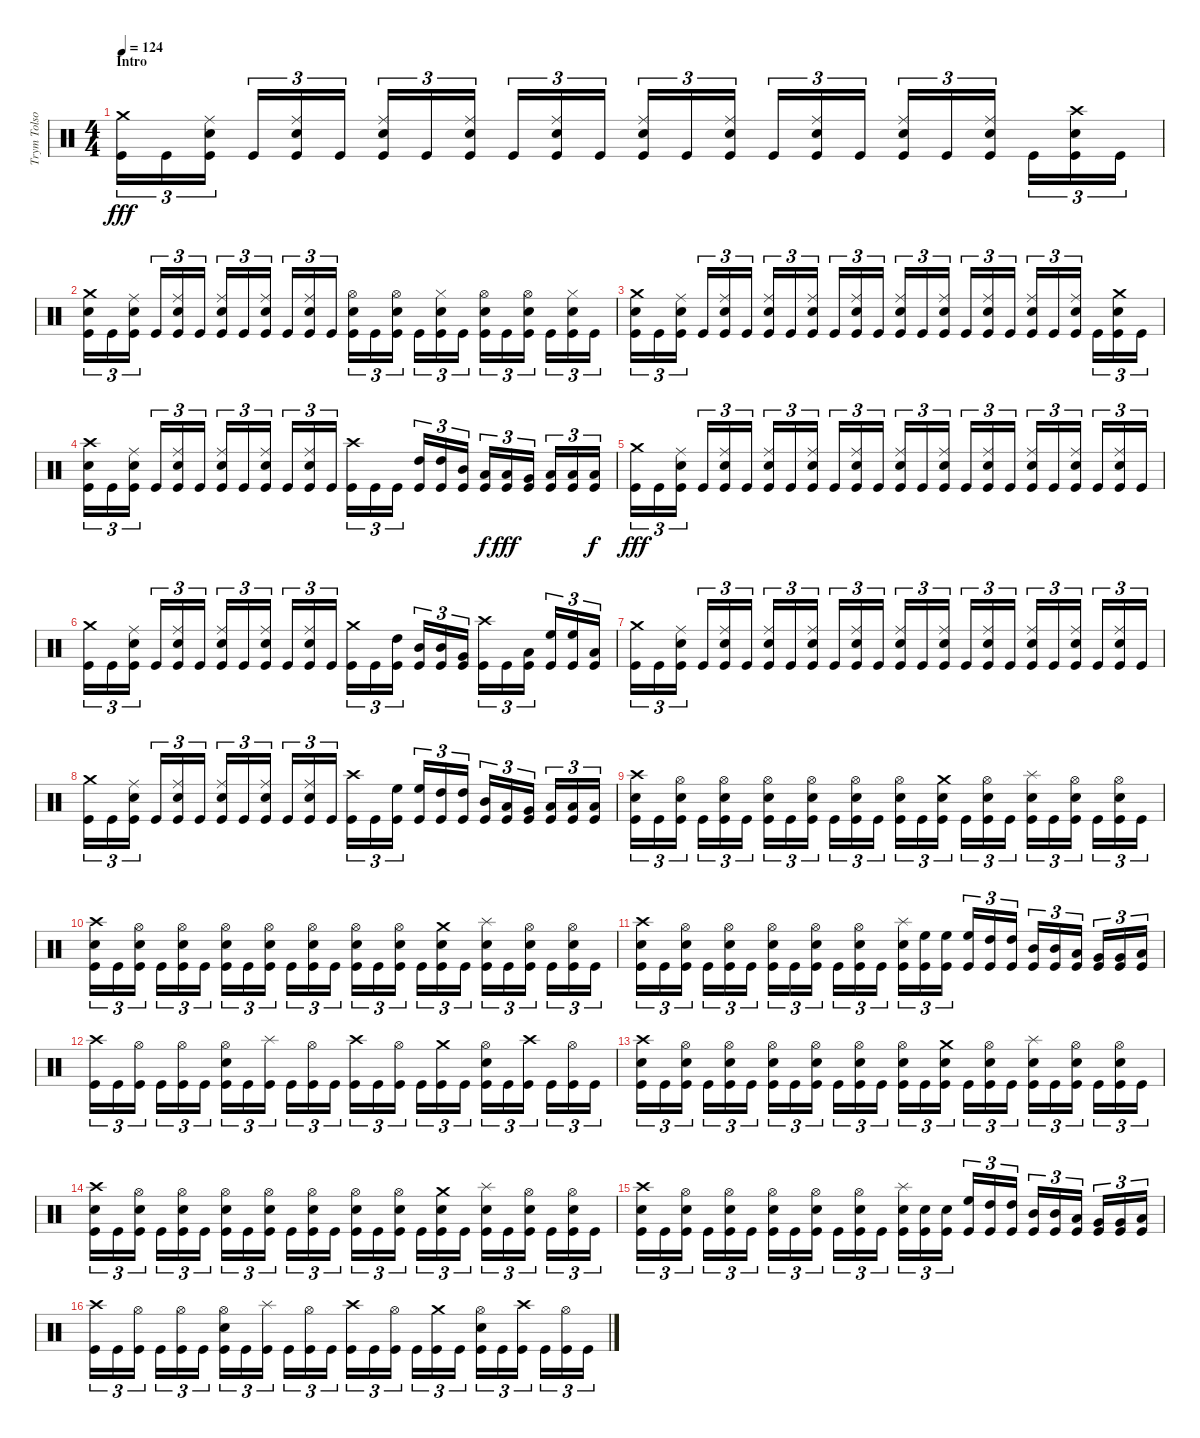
\track ("Trym Tolson" "Trym Tolso") {instrument percussion}
\staff {score}
\articulation defaults
\ts (4 4)
\section ("" "Intro")
\tempo 124
\clef neutral
\ks c
("Crash medium (hit)" "Kick (hit)").16{tu (3 2) dy fff} "Kick (hit)".16{tu (3 2)} ("Ride (middle)" "Electric Snare (hit)" "Kick (hit)").16{tu (3 2)} "Kick (hit)".16{tu (3 2)} ("Ride (middle)" "Electric Snare (hit)" "Kick (hit)").16{tu (3 2)} "Kick (hit)".16{tu (3 2)} ("Ride (middle)" "Electric Snare (hit)" "Kick (hit)").16{tu (3 2)} "Kick (hit)".16{tu (3 2)} ("Ride (middle)" "Electric Snare (hit)" "Kick (hit)").16{tu (3 2)} "Kick (hit)".16{tu (3 2)} ("Ride (middle)" "Electric Snare (hit)" "Kick (hit)").16{tu (3 2)} "Kick (hit)".16{tu (3 2)} ("Ride (middle)" "Electric Snare (hit)" "Kick (hit)").16{tu (3 2)} "Kick (hit)".16{tu (3 2)} ("Ride (middle)" "Electric Snare (hit)" "Kick (hit)").16{tu (3 2)} "Kick (hit)".16{tu (3 2)} ("Ride (middle)" "Electric Snare (hit)" "Kick (hit)").16{tu (3 2)} "Kick (hit)".16{tu (3 2)} ("Ride (middle)" "Electric Snare (hit)" "Kick (hit)").16{tu (3 2)} "Kick (hit)".16{tu (3 2)} ("Ride (middle)" "Electric Snare (hit)" "Kick (hit)").16{tu (3 2)} "Kick (hit)".16{tu (3 2)} ("Crash high (hit)" "Electric Snare (hit)" "Kick (hit)").16{tu (3 2)} "Kick (hit)".16{tu (3 2)} |
("Crash medium (hit)" "Electric Snare (hit)" "Kick (hit)").16{tu (3 2)} "Kick (hit)".16{tu (3 2)} ("Ride (middle)" "Electric Snare (hit)" "Kick (hit)").16{tu (3 2)} "Kick (hit)".16{tu (3 2)} ("Ride (middle)" "Electric Snare (hit)" "Kick (hit)").16{tu (3 2)} "Kick (hit)".16{tu (3 2)} ("Ride (middle)" "Electric Snare (hit)" "Kick (hit)").16{tu (3 2)} "Kick (hit)".16{tu (3 2)} ("Ride (middle)" "Electric Snare (hit)" "Kick (hit)").16{tu (3 2)} "Kick (hit)".16{tu (3 2)} ("Ride (middle)" "Electric Snare (hit)" "Kick (hit)").16{tu (3 2)} "Kick (hit)".16{tu (3 2)} ("Hi-Hat (open)" "Electric Snare (hit)" "Kick (hit)").16{tu (3 2)} "Kick (hit)".16{tu (3 2)} ("Hi-Hat (open)" "Electric Snare (hit)" "Kick (hit)").16{tu (3 2)} "Kick (hit)".16{tu (3 2)} ("Hi-Hat (closed)" "Electric Snare (hit)" "Kick (hit)").16{tu (3 2)} "Kick (hit)".16{tu (3 2)} ("Hi-Hat (open)" "Electric Snare (hit)" "Kick (hit)").16{tu (3 2)} "Kick (hit)".16{tu (3 2)} ("Hi-Hat (open)" "Electric Snare (hit)" "Kick (hit)").16{tu (3 2)} "Kick (hit)".16{tu (3 2)} ("Hi-Hat (closed)" "Electric Snare (hit)" "Kick (hit)").16{tu (3 2)} "Kick (hit)".16{tu (3 2)} |
("Crash medium (hit)" "Electric Snare (hit)" "Kick (hit)").16{tu (3 2)} "Kick (hit)".16{tu (3 2)} ("Ride (middle)" "Electric Snare (hit)" "Kick (hit)").16{tu (3 2)} "Kick (hit)".16{tu (3 2)} ("Ride (middle)" "Electric Snare (hit)" "Kick (hit)").16{tu (3 2)} "Kick (hit)".16{tu (3 2)} ("Ride (middle)" "Electric Snare (hit)" "Kick (hit)").16{tu (3 2)} "Kick (hit)".16{tu (3 2)} ("Ride (middle)" "Electric Snare (hit)" "Kick (hit)").16{tu (3 2)} "Kick (hit)".16{tu (3 2)} ("Ride (middle)" "Electric Snare (hit)" "Kick (hit)").16{tu (3 2)} "Kick (hit)".16{tu (3 2)} ("Ride (middle)" "Electric Snare (hit)" "Kick (hit)").16{tu (3 2)} "Kick (hit)".16{tu (3 2)} ("Ride (middle)" "Electric Snare (hit)" "Kick (hit)").16{tu (3 2)} "Kick (hit)".16{tu (3 2)} ("Ride (middle)" "Electric Snare (hit)" "Kick (hit)").16{tu (3 2)} "Kick (hit)".16{tu (3 2)} ("Ride (middle)" "Electric Snare (hit)" "Kick (hit)").16{tu (3 2)} "Kick (hit)".16{tu (3 2)} ("Ride (middle)" "Electric Snare (hit)" "Kick (hit)").16{tu (3 2)} "Kick (hit)".16{tu (3 2)} ("Crash medium (hit)" "Electric Snare (hit)" "Kick (hit)").16{tu (3 2)} "Kick (hit)".16{tu (3 2)} |
("Crash high (hit)" "Electric Snare (hit)" "Kick (hit)").16{tu (3 2)} "Kick (hit)".16{tu (3 2)} ("Ride (middle)" "Electric Snare (hit)" "Kick (hit)").16{tu (3 2)} "Kick (hit)".16{tu (3 2)} ("Ride (middle)" "Electric Snare (hit)" "Kick (hit)").16{tu (3 2)} "Kick (hit)".16{tu (3 2)} ("Ride (middle)" "Electric Snare (hit)" "Kick (hit)").16{tu (3 2)} "Kick (hit)".16{tu (3 2)} ("Ride (middle)" "Electric Snare (hit)" "Kick (hit)").16{tu (3 2)} "Kick (hit)".16{tu (3 2)} ("Ride (middle)" "Electric Snare (hit)" "Kick (hit)").16{tu (3 2)} "Kick (hit)".16{tu (3 2)} ("Crash high (hit)" "Kick (hit)").16{tu (3 2)} "Kick (hit)".16{tu (3 2)} "Kick (hit)".16{tu (3 2)} ("High Tom (hit)" "Kick (hit)").16{tu (3 2)} ("High Tom (hit)" "Kick (hit)").16{tu (3 2)} ("Mid Tom (hit)" "Kick (hit)").16{tu (3 2)} ("Low Tom (hit)" "Kick (hit)").16{tu (3 2) dy f} ("Low Tom (hit)" "Kick (hit)").16{tu (3 2) dy fff} ("Very Low Tom (hit)" "Kick (hit)").16{tu (3 2)} ("Low Floor Tom (hit)" "Kick (hit)").16{tu (3 2)} ("Low Floor Tom (hit)" "Kick (hit)").16{tu (3 2)} ("Low Floor Tom (hit)" "Kick (hit)").16{tu (3 2) dy f} |
("Crash medium (hit)" "Kick (hit)").16{tu (3 2) dy fff} "Kick (hit)".16{tu (3 2)} ("Ride (middle)" "Electric Snare (hit)" "Kick (hit)").16{tu (3 2)} "Kick (hit)".16{tu (3 2)} ("Ride (middle)" "Electric Snare (hit)" "Kick (hit)").16{tu (3 2)} "Kick (hit)".16{tu (3 2)} ("Ride (middle)" "Electric Snare (hit)" "Kick (hit)").16{tu (3 2)} "Kick (hit)".16{tu (3 2)} ("Ride (middle)" "Electric Snare (hit)" "Kick (hit)").16{tu (3 2)} "Kick (hit)".16{tu (3 2)} ("Ride (middle)" "Electric Snare (hit)" "Kick (hit)").16{tu (3 2)} "Kick (hit)".16{tu (3 2)} ("Ride (middle)" "Electric Snare (hit)" "Kick (hit)").16{tu (3 2)} "Kick (hit)".16{tu (3 2)} ("Ride (middle)" "Electric Snare (hit)" "Kick (hit)").16{tu (3 2)} "Kick (hit)".16{tu (3 2)} ("Ride (middle)" "Electric Snare (hit)" "Kick (hit)").16{tu (3 2)} "Kick (hit)".16{tu (3 2)} ("Ride (middle)" "Electric Snare (hit)" "Kick (hit)").16{tu (3 2)} "Kick (hit)".16{tu (3 2)} ("Ride (middle)" "Electric Snare (hit)" "Kick (hit)").16{tu (3 2)} "Kick (hit)".16{tu (3 2)} ("Ride (middle)" "Electric Snare (hit)" "Kick (hit)").16{tu (3 2)} "Kick (hit)".16{tu (3 2)} |
("Crash medium (hit)" "Kick (hit)").16{tu (3 2)} "Kick (hit)".16{tu (3 2)} ("Ride (middle)" "Electric Snare (hit)" "Kick (hit)").16{tu (3 2)} "Kick (hit)".16{tu (3 2)} ("Ride (middle)" "Electric Snare (hit)" "Kick (hit)").16{tu (3 2)} "Kick (hit)".16{tu (3 2)} ("Ride (middle)" "Electric Snare (hit)" "Kick (hit)").16{tu (3 2)} "Kick (hit)".16{tu (3 2)} ("Ride (middle)" "Electric Snare (hit)" "Kick (hit)").16{tu (3 2)} "Kick (hit)".16{tu (3 2)} ("Ride (middle)" "Electric Snare (hit)" "Kick (hit)").16{tu (3 2)} "Kick (hit)".16{tu (3 2)} ("Crash medium (hit)" "Kick (hit)").16{tu (3 2)} "Kick (hit)".16{tu (3 2)} ("High Tom (hit)" "Kick (hit)").16{tu (3 2)} ("Mid Tom (hit)" "Kick (hit)").16{tu (3 2)} ("Mid Tom (hit)" "Kick (hit)").16{tu (3 2)} ("Very Low Tom (hit)" "Kick (hit)").16{tu (3 2)} ("Crash high (hit)" "Kick (hit)").16{tu (3 2)} "Kick (hit)".16{tu (3 2)} ("Low Tom (hit)" "Kick (hit)").16{tu (3 2)} ("High Floor Tom (hit)" "Kick (hit)").16{tu (3 2)} ("High Floor Tom (hit)" "Kick (hit)").16{tu (3 2)} ("Low Floor Tom (hit)" "Kick (hit)").16{tu (3 2)} |
("Crash medium (hit)" "Kick (hit)").16{tu (3 2)} "Kick (hit)".16{tu (3 2)} ("Ride (middle)" "Electric Snare (hit)" "Kick (hit)").16{tu (3 2)} "Kick (hit)".16{tu (3 2)} ("Ride (middle)" "Electric Snare (hit)" "Kick (hit)").16{tu (3 2)} "Kick (hit)".16{tu (3 2)} ("Ride (middle)" "Electric Snare (hit)" "Kick (hit)").16{tu (3 2)} "Kick (hit)".16{tu (3 2)} ("Ride (middle)" "Electric Snare (hit)" "Kick (hit)").16{tu (3 2)} "Kick (hit)".16{tu (3 2)} ("Ride (middle)" "Electric Snare (hit)" "Kick (hit)").16{tu (3 2)} "Kick (hit)".16{tu (3 2)} ("Ride (middle)" "Electric Snare (hit)" "Kick (hit)").16{tu (3 2)} "Kick (hit)".16{tu (3 2)} ("Ride (middle)" "Electric Snare (hit)" "Kick (hit)").16{tu (3 2)} "Kick (hit)".16{tu (3 2)} ("Ride (middle)" "Electric Snare (hit)" "Kick (hit)").16{tu (3 2)} "Kick (hit)".16{tu (3 2)} ("Ride (middle)" "Electric Snare (hit)" "Kick (hit)").16{tu (3 2)} "Kick (hit)".16{tu (3 2)} ("Ride (middle)" "Electric Snare (hit)" "Kick (hit)").16{tu (3 2)} "Kick (hit)".16{tu (3 2)} ("Ride (middle)" "Electric Snare (hit)" "Kick (hit)").16{tu (3 2)} "Kick (hit)".16{tu (3 2)} |
("Crash medium (hit)" "Kick (hit)").16{tu (3 2)} "Kick (hit)".16{tu (3 2)} ("Ride (middle)" "Electric Snare (hit)" "Kick (hit)").16{tu (3 2)} "Kick (hit)".16{tu (3 2)} ("Ride (middle)" "Electric Snare (hit)" "Kick (hit)").16{tu (3 2)} "Kick (hit)".16{tu (3 2)} ("Ride (middle)" "Electric Snare (hit)" "Kick (hit)").16{tu (3 2)} "Kick (hit)".16{tu (3 2)} ("Ride (middle)" "Electric Snare (hit)" "Kick (hit)").16{tu (3 2)} "Kick (hit)".16{tu (3 2)} ("Ride (middle)" "Electric Snare (hit)" "Kick (hit)").16{tu (3 2)} "Kick (hit)".16{tu (3 2)} ("Crash high (hit)" "Kick (hit)").16{tu (3 2)} "Kick (hit)".16{tu (3 2)} ("High Floor Tom (hit)" "Kick (hit)").16{tu (3 2)} ("High Floor Tom (hit)" "Kick (hit)").16{tu (3 2)} ("High Tom (hit)" "Kick (hit)").16{tu (3 2)} ("High Tom (hit)" "Kick (hit)").16{tu (3 2)} ("Mid Tom (hit)" "Kick (hit)").16{tu (3 2)} ("Low Tom (hit)" "Kick (hit)").16{tu (3 2)} ("Very Low Tom (hit)" "Kick (hit)").16{tu (3 2)} ("Low Floor Tom (hit)" "Kick (hit)").16{tu (3 2)} ("Low Floor Tom (hit)" "Kick (hit)").16{tu (3 2)} ("Low Floor Tom (hit)" "Kick (hit)").16{tu (3 2)} |
("Crash high (hit)" "Electric Snare (hit)" "Kick (hit)").16{tu (3 2)} "Kick (hit)".16{tu (3 2)} ("Hi-Hat (open)" "Electric Snare (hit)" "Kick (hit)").16{tu (3 2)} "Kick (hit)".16{tu (3 2)} ("Hi-Hat (open)" "Electric Snare (hit)" "Kick (hit)").16{tu (3 2)} "Kick (hit)".16{tu (3 2)} ("Hi-Hat (open)" "Electric Snare (hit)" "Kick (hit)").16{tu (3 2)} "Kick (hit)".16{tu (3 2)} ("Hi-Hat (open)" "Electric Snare (hit)" "Kick (hit)").16{tu (3 2)} "Kick (hit)".16{tu (3 2)} ("Hi-Hat (open)" "Electric Snare (hit)" "Kick (hit)").16{tu (3 2)} "Kick (hit)".16{tu (3 2)} ("Hi-Hat (open)" "Electric Snare (hit)" "Kick (hit)").16{tu (3 2)} "Kick (hit)".16{tu (3 2)} ("Crash medium (hit)" "Electric Snare (hit)" "Kick (hit)").16{tu (3 2)} "Kick (hit)".16{tu (3 2)} ("Hi-Hat (open)" "Electric Snare (hit)" "Kick (hit)").16{tu (3 2)} "Kick (hit)".16{tu (3 2)} ("Splash (hit)" "Electric Snare (hit)" "Kick (hit)").16{tu (3 2)} "Kick (hit)".16{tu (3 2)} ("Hi-Hat (open)" "Electric Snare (hit)" "Kick (hit)").16{tu (3 2)} "Kick (hit)".16{tu (3 2)} ("Hi-Hat (open)" "Electric Snare (hit)" "Kick (hit)").16{tu (3 2)} "Kick (hit)".16{tu (3 2)} |
("Crash high (hit)" "Electric Snare (hit)" "Kick (hit)").16{tu (3 2)} "Kick (hit)".16{tu (3 2)} ("Hi-Hat (open)" "Electric Snare (hit)" "Kick (hit)").16{tu (3 2)} "Kick (hit)".16{tu (3 2)} ("Hi-Hat (open)" "Electric Snare (hit)" "Kick (hit)").16{tu (3 2)} "Kick (hit)".16{tu (3 2)} ("Hi-Hat (open)" "Electric Snare (hit)" "Kick (hit)").16{tu (3 2)} "Kick (hit)".16{tu (3 2)} ("Hi-Hat (open)" "Electric Snare (hit)" "Kick (hit)").16{tu (3 2)} "Kick (hit)".16{tu (3 2)} ("Hi-Hat (open)" "Electric Snare (hit)" "Kick (hit)").16{tu (3 2)} "Kick (hit)".16{tu (3 2)} ("Hi-Hat (open)" "Electric Snare (hit)" "Kick (hit)").16{tu (3 2)} "Kick (hit)".16{tu (3 2)} ("Hi-Hat (open)" "Electric Snare (hit)" "Kick (hit)").16{tu (3 2)} "Kick (hit)".16{tu (3 2)} ("Crash medium (hit)" "Electric Snare (hit)" "Kick (hit)").16{tu (3 2)} "Kick (hit)".16{tu (3 2)} ("Splash (hit)" "Electric Snare (hit)" "Kick (hit)").16{tu (3 2)} "Kick (hit)".16{tu (3 2)} ("Hi-Hat (open)" "Electric Snare (hit)" "Kick (hit)").16{tu (3 2)} "Kick (hit)".16{tu (3 2)} ("Hi-Hat (open)" "Electric Snare (hit)" "Kick (hit)").16{tu (3 2)} "Kick (hit)".16{tu (3 2)} |
("Crash high (hit)" "Electric Snare (hit)" "Kick (hit)").16{tu (3 2)} "Kick (hit)".16{tu (3 2)} ("Hi-Hat (open)" "Electric Snare (hit)" "Kick (hit)").16{tu (3 2)} "Kick (hit)".16{tu (3 2)} ("Hi-Hat (open)" "Electric Snare (hit)" "Kick (hit)").16{tu (3 2)} "Kick (hit)".16{tu (3 2)} ("Hi-Hat (open)" "Electric Snare (hit)" "Kick (hit)").16{tu (3 2)} "Kick (hit)".16{tu (3 2)} ("Hi-Hat (open)" "Electric Snare (hit)" "Kick (hit)").16{tu (3 2)} "Kick (hit)".16{tu (3 2)} ("Hi-Hat (open)" "Electric Snare (hit)" "Kick (hit)").16{tu (3 2)} "Kick (hit)".16{tu (3 2)} ("Splash (hit)" "Electric Snare (hit)" "Kick (hit)").16{tu (3 2)} ("High Floor Tom (hit)" "Kick (hit)").16{tu (3 2)} ("High Floor Tom (hit)" "Kick (hit)").16{tu (3 2)} ("High Floor Tom (hit)" "Kick (hit)").16{tu (3 2)} ("High Tom (hit)" "Kick (hit)").16{tu (3 2)} ("High Tom (hit)" "Kick (hit)").16{tu (3 2)} ("Mid Tom (hit)" "Kick (hit)").16{tu (3 2)} ("Mid Tom (hit)" "Kick (hit)").16{tu (3 2)} ("Low Tom (hit)" "Kick (hit)").16{tu (3 2)} ("Very Low Tom (hit)" "Kick (hit)").16{tu (3 2)} ("Very Low Tom (hit)" "Kick (hit)").16{tu (3 2)} ("Low Floor Tom (hit)" "Kick (hit)").16{tu (3 2)} |
("Crash high (hit)" "Kick (hit)").16{tu (3 2)} "Kick (hit)".16{tu (3 2)} ("Hi-Hat (open)" "Kick (hit)").16{tu (3 2)} "Kick (hit)".16{tu (3 2)} ("Hi-Hat (open)" "Kick (hit)").16{tu (3 2)} "Kick (hit)".16{tu (3 2)} ("Hi-Hat (open)" "Electric Snare (hit)" "Kick (hit)").16{tu (3 2)} "Kick (hit)".16{tu (3 2)} ("Splash (hit)" "Kick (hit)").16{tu (3 2)} "Kick (hit)".16{tu (3 2)} ("Hi-Hat (open)" "Kick (hit)").16{tu (3 2)} "Kick (hit)".16{tu (3 2)} ("Crash high (hit)" "Kick (hit)").16{tu (3 2)} "Kick (hit)".16{tu (3 2)} ("Hi-Hat (open)" "Kick (hit)").16{tu (3 2)} "Kick (hit)".16{tu (3 2)} ("Crash medium (hit)" "Kick (hit)").16{tu (3 2)} "Kick (hit)".16{tu (3 2)} ("Hi-Hat (open)" "Electric Snare (hit)" "Kick (hit)").16{tu (3 2)} "Kick (hit)".16{tu (3 2)} ("Crash high (hit)" "Kick (hit)").16{tu (3 2)} "Kick (hit)".16{tu (3 2)} ("Hi-Hat (open)" "Kick (hit)").16{tu (3 2)} "Kick (hit)".16{tu (3 2)} |
("Crash high (hit)" "Electric Snare (hit)" "Kick (hit)").16{tu (3 2)} "Kick (hit)".16{tu (3 2)} ("Hi-Hat (open)" "Electric Snare (hit)" "Kick (hit)").16{tu (3 2)} "Kick (hit)".16{tu (3 2)} ("Hi-Hat (open)" "Electric Snare (hit)" "Kick (hit)").16{tu (3 2)} "Kick (hit)".16{tu (3 2)} ("Hi-Hat (open)" "Electric Snare (hit)" "Kick (hit)").16{tu (3 2)} "Kick (hit)".16{tu (3 2)} ("Hi-Hat (open)" "Electric Snare (hit)" "Kick (hit)").16{tu (3 2)} "Kick (hit)".16{tu (3 2)} ("Hi-Hat (open)" "Electric Snare (hit)" "Kick (hit)").16{tu (3 2)} "Kick (hit)".16{tu (3 2)} ("Hi-Hat (open)" "Electric Snare (hit)" "Kick (hit)").16{tu (3 2)} "Kick (hit)".16{tu (3 2)} ("Crash medium (hit)" "Electric Snare (hit)" "Kick (hit)").16{tu (3 2)} "Kick (hit)".16{tu (3 2)} ("Hi-Hat (open)" "Electric Snare (hit)" "Kick (hit)").16{tu (3 2)} "Kick (hit)".16{tu (3 2)} ("Splash (hit)" "Electric Snare (hit)" "Kick (hit)").16{tu (3 2)} "Kick (hit)".16{tu (3 2)} ("Hi-Hat (open)" "Electric Snare (hit)" "Kick (hit)").16{tu (3 2)} "Kick (hit)".16{tu (3 2)} ("Hi-Hat (open)" "Electric Snare (hit)" "Kick (hit)").16{tu (3 2)} "Kick (hit)".16{tu (3 2)} |
("Crash high (hit)" "Electric Snare (hit)" "Kick (hit)").16{tu (3 2)} "Kick (hit)".16{tu (3 2)} ("Hi-Hat (open)" "Electric Snare (hit)" "Kick (hit)").16{tu (3 2)} "Kick (hit)".16{tu (3 2)} ("Hi-Hat (open)" "Electric Snare (hit)" "Kick (hit)").16{tu (3 2)} "Kick (hit)".16{tu (3 2)} ("Hi-Hat (open)" "Electric Snare (hit)" "Kick (hit)").16{tu (3 2)} "Kick (hit)".16{tu (3 2)} ("Hi-Hat (open)" "Electric Snare (hit)" "Kick (hit)").16{tu (3 2)} "Kick (hit)".16{tu (3 2)} ("Hi-Hat (open)" "Electric Snare (hit)" "Kick (hit)").16{tu (3 2)} "Kick (hit)".16{tu (3 2)} ("Hi-Hat (open)" "Electric Snare (hit)" "Kick (hit)").16{tu (3 2)} "Kick (hit)".16{tu (3 2)} ("Hi-Hat (open)" "Electric Snare (hit)" "Kick (hit)").16{tu (3 2)} "Kick (hit)".16{tu (3 2)} ("Crash medium (hit)" "Electric Snare (hit)" "Kick (hit)").16{tu (3 2)} "Kick (hit)".16{tu (3 2)} ("Splash (hit)" "Electric Snare (hit)" "Kick (hit)").16{tu (3 2)} "Kick (hit)".16{tu (3 2)} ("Hi-Hat (open)" "Electric Snare (hit)" "Kick (hit)").16{tu (3 2)} "Kick (hit)".16{tu (3 2)} ("Hi-Hat (open)" "Electric Snare (hit)" "Kick (hit)").16{tu (3 2)} "Kick (hit)".16{tu (3 2)} |
("Crash high (hit)" "Electric Snare (hit)" "Kick (hit)").16{tu (3 2)} "Kick (hit)".16{tu (3 2)} ("Hi-Hat (open)" "Electric Snare (hit)" "Kick (hit)").16{tu (3 2)} "Kick (hit)".16{tu (3 2)} ("Hi-Hat (open)" "Electric Snare (hit)" "Kick (hit)").16{tu (3 2)} "Kick (hit)".16{tu (3 2)} ("Hi-Hat (open)" "Electric Snare (hit)" "Kick (hit)").16{tu (3 2)} "Kick (hit)".16{tu (3 2)} ("Hi-Hat (open)" "Electric Snare (hit)" "Kick (hit)").16{tu (3 2)} "Kick (hit)".16{tu (3 2)} ("Hi-Hat (open)" "Electric Snare (hit)" "Kick (hit)").16{tu (3 2)} "Kick (hit)".16{tu (3 2)} ("Splash (hit)" "Electric Snare (hit)" "Kick (hit)").16{tu (3 2)} ("Electric Snare (hit)" "Kick (hit)").16{tu (3 2)} ("Electric Snare (hit)" "Kick (hit)").16{tu (3 2)} ("High Floor Tom (hit)" "Kick (hit)").16{tu (3 2)} ("High Tom (hit)" "Kick (hit)").16{tu (3 2)} ("High Tom (hit)" "Kick (hit)").16{tu (3 2)} ("Mid Tom (hit)" "Kick (hit)").16{tu (3 2)} ("Mid Tom (hit)" "Kick (hit)").16{tu (3 2)} ("Low Tom (hit)" "Kick (hit)").16{tu (3 2)} ("Very Low Tom (hit)" "Kick (hit)").16{tu (3 2)} ("Very Low Tom (hit)" "Kick (hit)").16{tu (3 2)} ("Low Floor Tom (hit)" "Kick (hit)").16{tu (3 2)} |
("Crash high (hit)" "Kick (hit)").16{tu (3 2)} "Kick (hit)".16{tu (3 2)} ("Hi-Hat (open)" "Kick (hit)").16{tu (3 2)} "Kick (hit)".16{tu (3 2)} ("Hi-Hat (open)" "Kick (hit)").16{tu (3 2)} "Kick (hit)".16{tu (3 2)} ("Hi-Hat (open)" "Electric Snare (hit)" "Kick (hit)").16{tu (3 2)} "Kick (hit)".16{tu (3 2)} ("Splash (hit)" "Kick (hit)").16{tu (3 2)} "Kick (hit)".16{tu (3 2)} ("Hi-Hat (open)" "Kick (hit)").16{tu (3 2)} "Kick (hit)".16{tu (3 2)} ("Crash high (hit)" "Kick (hit)").16{tu (3 2)} "Kick (hit)".16{tu (3 2)} ("Hi-Hat (open)" "Kick (hit)").16{tu (3 2)} "Kick (hit)".16{tu (3 2)} ("Crash medium (hit)" "Kick (hit)").16{tu (3 2)} "Kick (hit)".16{tu (3 2)} ("Hi-Hat (open)" "Electric Snare (hit)" "Kick (hit)").16{tu (3 2)} "Kick (hit)".16{tu (3 2)} ("Crash high (hit)" "Kick (hit)").16{tu (3 2)} "Kick (hit)".16{tu (3 2)} ("Hi-Hat (open)" "Kick (hit)").16{tu (3 2)} "Kick (hit)".16{tu (3 2)}
